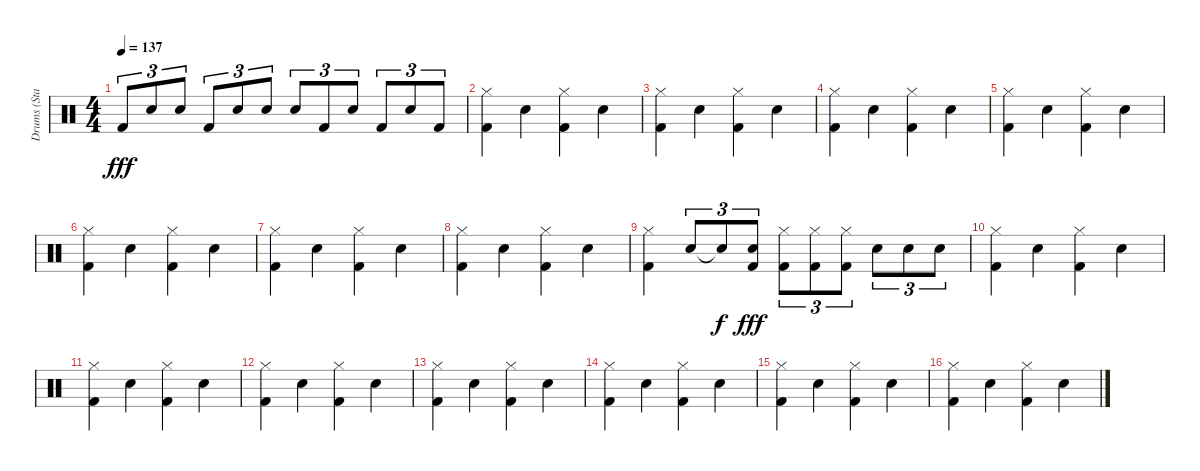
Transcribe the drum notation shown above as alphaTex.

\track ("Drums (Standard Set)" "Drums (Sta") {instrument percussion}
\staff {score}
\articulation defaults
\ts (4 4)
\tempo 137
\clef neutral
\ks c "Kick (hit) 2".8{tu (3 2) dy fff} "Snare (hit) 2".8{tu (3 2)} "Snare (hit) 2".8{tu (3 2)} "Kick (hit) 2".8{tu (3 2)} "Snare (hit) 2".8{tu (3 2)} "Snare (hit) 2".8{tu (3 2)} "Snare (hit) 2".8{tu (3 2)} "Kick (hit) 2".8{tu (3 2)} "Snare (hit) 2".8{tu (3 2)} "Kick (hit) 2".8{tu (3 2)} "Snare (hit) 2".8{tu (3 2)} "Kick (hit) 2".8{tu (3 2)}
|
("Hi-Hat (closed)" "Kick (hit) 2").4 "Snare (hit) 2".4 ("Hi-Hat (closed)" "Kick (hit) 2").4 "Snare (hit) 2".4 |
("Hi-Hat (closed)" "Kick (hit) 2").4 "Snare (hit) 2".4 ("Hi-Hat (closed)" "Kick (hit) 2").4 "Snare (hit) 2".4 |
("Hi-Hat (closed)" "Kick (hit) 2").4 "Snare (hit) 2".4 ("Hi-Hat (closed)" "Kick (hit) 2").4 "Snare (hit) 2".4 |
("Hi-Hat (closed)" "Kick (hit) 2").4 "Snare (hit) 2".4 ("Hi-Hat (closed)" "Kick (hit) 2").4 "Snare (hit) 2".4 |
("Hi-Hat (closed)" "Kick (hit) 2").4 "Snare (hit) 2".4 ("Hi-Hat (closed)" "Kick (hit) 2").4 "Snare (hit) 2".4 |
("Hi-Hat (closed)" "Kick (hit) 2").4 "Snare (hit) 2".4 ("Hi-Hat (closed)" "Kick (hit) 2").4 "Snare (hit) 2".4 |
("Hi-Hat (closed)" "Kick (hit) 2").4 "Snare (hit) 2".4 ("Hi-Hat (closed)" "Kick (hit) 2").4 "Snare (hit) 2".4 |
("Kick (hit) 2" "Hi-Hat (closed)").4 "Snare (hit) 2".8{tu (3 2)} "Snare (hit)"{t}.8{tu (3 2) dy f} ("Kick (hit) 2" "Snare (hit) 2").8{tu (3 2) dy fff} ("Hi-Hat (closed)" "Kick (hit) 2").8{tu (3 2)} ("Hi-Hat (closed)" "Kick (hit) 2").8{tu (3 2)} ("Hi-Hat (closed)" "Kick (hit) 2").8{tu (3 2)} "Snare (hit) 2".8{tu (3 2)} "Snare (hit) 2".8{tu (3 2)} "Snare (hit) 2".8{tu (3 2)} |
("Hi-Hat (closed)" "Kick (hit) 2").4 "Snare (hit) 2".4 ("Hi-Hat (closed)" "Kick (hit) 2").4 "Snare (hit) 2".4 |
("Hi-Hat (closed)" "Kick (hit) 2").4 "Snare (hit) 2".4 ("Hi-Hat (closed)" "Kick (hit) 2").4 "Snare (hit) 2".4 |
("Hi-Hat (closed)" "Kick (hit) 2").4 "Snare (hit) 2".4 ("Hi-Hat (closed)" "Kick (hit) 2").4 "Snare (hit) 2".4 |
("Hi-Hat (closed)" "Kick (hit) 2").4 "Snare (hit) 2".4 ("Hi-Hat (closed)" "Kick (hit) 2").4 "Snare (hit) 2".4 |
("Hi-Hat (closed)" "Kick (hit) 2").4 "Snare (hit) 2".4 ("Hi-Hat (closed)" "Kick (hit) 2").4 "Snare (hit) 2".4 |
("Hi-Hat (closed)" "Kick (hit) 2").4 "Snare (hit) 2".4 ("Hi-Hat (closed)" "Kick (hit) 2").4 "Snare (hit) 2".4 |
("Hi-Hat (closed)" "Kick (hit) 2").4 "Snare (hit) 2".4 ("Hi-Hat (closed)" "Kick (hit) 2").4 "Snare (hit) 2".4
